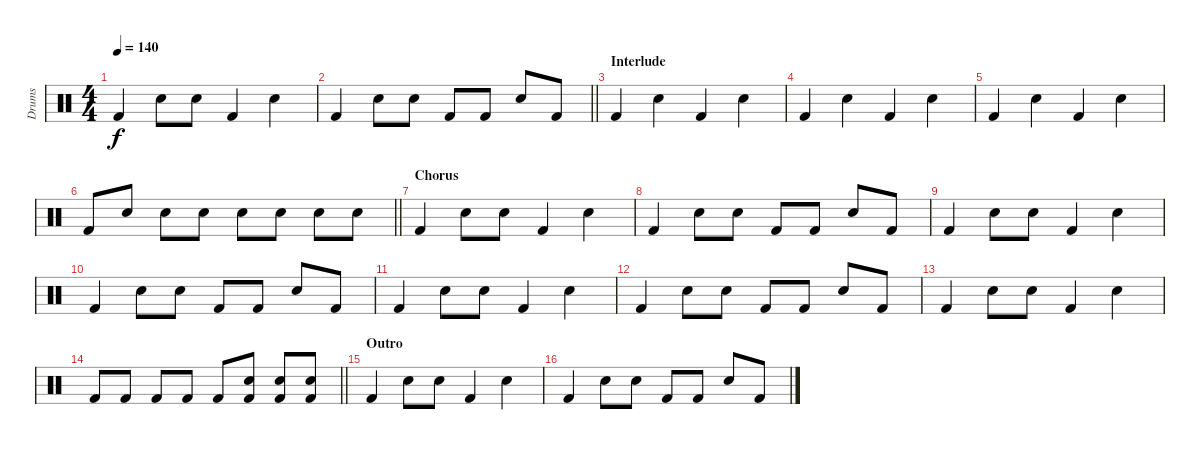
\track ("Drums" "Drums") {instrument percussion}
\staff {score}
\articulation defaults
\ts (4 4)
\tempo 140
\clef neutral
\ks c "Kick (hit) 2".4{dy f} "Snare (hit) 2".8 "Snare (hit) 2".8 "Kick (hit) 2".4 "Snare (hit) 2".4
|
\barLineRight lightlight "Kick (hit) 2".4 "Snare (hit) 2".8 "Snare (hit) 2".8 "Kick (hit) 2".8 "Kick (hit) 2".8 "Snare (hit) 2".8 "Kick (hit) 2".8
|
\section ("" "Interlude")
"Kick (hit) 2".4 "Snare (hit) 2".4 "Kick (hit) 2".4 "Snare (hit) 2".4 |
"Kick (hit) 2".4 "Snare (hit) 2".4 "Kick (hit) 2".4 "Snare (hit) 2".4 |
"Kick (hit) 2".4 "Snare (hit) 2".4 "Kick (hit) 2".4 "Snare (hit) 2".4 |
\barLineRight lightlight "Kick (hit) 2".8 "Snare (hit) 2".8 "Snare (hit) 2".8 "Snare (hit) 2".8 "Snare (hit) 2".8 "Snare (hit) 2".8 "Snare (hit) 2".8 "Snare (hit) 2".8
|
\section ("" "Chorus")
"Kick (hit) 2".4 "Snare (hit) 2".8 "Snare (hit) 2".8 "Kick (hit) 2".4 "Snare (hit) 2".4 |
"Kick (hit) 2".4 "Snare (hit) 2".8 "Snare (hit) 2".8 "Kick (hit) 2".8 "Kick (hit) 2".8 "Snare (hit) 2".8 "Kick (hit) 2".8 |
"Kick (hit) 2".4 "Snare (hit) 2".8 "Snare (hit) 2".8 "Kick (hit) 2".4 "Snare (hit) 2".4 |
"Kick (hit) 2".4 "Snare (hit) 2".8 "Snare (hit) 2".8 "Kick (hit) 2".8 "Kick (hit) 2".8 "Snare (hit) 2".8 "Kick (hit) 2".8 |
"Kick (hit) 2".4 "Snare (hit) 2".8 "Snare (hit) 2".8 "Kick (hit) 2".4 "Snare (hit) 2".4 |
"Kick (hit) 2".4 "Snare (hit) 2".8 "Snare (hit) 2".8 "Kick (hit) 2".8 "Kick (hit) 2".8 "Snare (hit) 2".8 "Kick (hit) 2".8 |
"Kick (hit) 2".4 "Snare (hit) 2".8 "Snare (hit) 2".8 "Kick (hit) 2".4 "Snare (hit) 2".4 |
\barLineRight lightlight "Kick (hit) 2".8 "Kick (hit) 2".8 "Kick (hit) 2".8 "Kick (hit) 2".8 "Kick (hit) 2".8
("Kick (hit) 2" "Snare (hit) 2").8 ("Kick (hit) 2" "Snare (hit) 2").8 ("Kick (hit) 2" "Snare (hit) 2").8 |
\section ("" "Outro")
"Kick (hit) 2".4 "Snare (hit) 2".8 "Snare (hit) 2".8 "Kick (hit) 2".4 "Snare (hit) 2".4 |
"Kick (hit) 2".4 "Snare (hit) 2".8 "Snare (hit) 2".8 "Kick (hit) 2".8 "Kick (hit) 2".8 "Snare (hit) 2".8 "Kick (hit) 2".8
